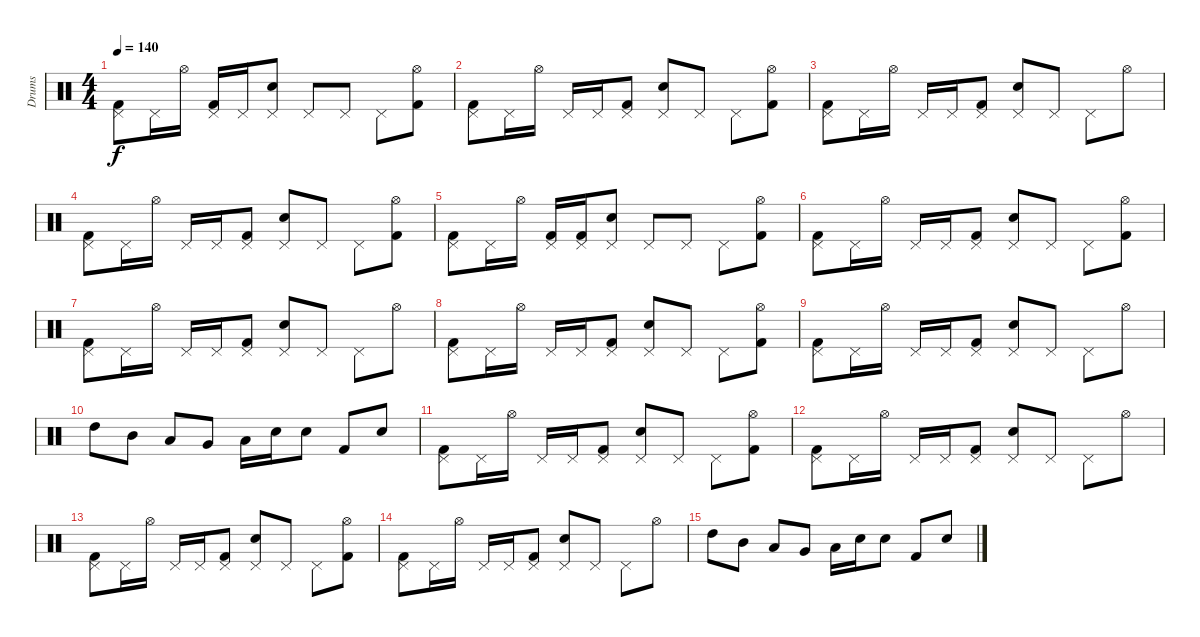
\track ("Drums" "Drums") {instrument percussion}
\staff {score}
\articulation defaults
\ts (4 4)
\tempo 140
\clef neutral
\ks c
("Pedal Hi-Hat (hit)" "Kick (hit) 2").8{dy f} "Pedal Hi-Hat (hit)".16 "Hi-Hat (open)".16 ("Pedal Hi-Hat (hit)" "Kick (hit) 2").16 "Pedal Hi-Hat (hit)".16 ("Pedal Hi-Hat (hit)" "Electric Snare (hit)").8 "Pedal Hi-Hat (hit)".8 "Pedal Hi-Hat (hit)".8 "Pedal Hi-Hat (hit)".8 ("Hi-Hat (open)" "Kick (hit) 2").8 |
("Pedal Hi-Hat (hit)" "Kick (hit) 2").8 "Pedal Hi-Hat (hit)".16 "Hi-Hat (open)".16 "Pedal Hi-Hat (hit)".16 "Pedal Hi-Hat (hit)".16 ("Pedal Hi-Hat (hit)" "Kick (hit) 2").8 ("Pedal Hi-Hat (hit)" "Electric Snare (hit)").8 "Pedal Hi-Hat (hit)".8 "Pedal Hi-Hat (hit)".8 ("Hi-Hat (open)" "Kick (hit) 2").8 |
("Pedal Hi-Hat (hit)" "Kick (hit) 2").8 "Pedal Hi-Hat (hit)".16 "Hi-Hat (open)".16 "Pedal Hi-Hat (hit)".16 "Pedal Hi-Hat (hit)".16 ("Pedal Hi-Hat (hit)" "Kick (hit) 2").8 ("Pedal Hi-Hat (hit)" "Electric Snare (hit)").8 "Pedal Hi-Hat (hit)".8 "Pedal Hi-Hat (hit)".8 "Hi-Hat (open)".8 |
("Pedal Hi-Hat (hit)" "Kick (hit) 2").8 "Pedal Hi-Hat (hit)".16 "Hi-Hat (open)".16 "Pedal Hi-Hat (hit)".16 "Pedal Hi-Hat (hit)".16 ("Pedal Hi-Hat (hit)" "Kick (hit) 2").8 ("Pedal Hi-Hat (hit)" "Electric Snare (hit)").8 "Pedal Hi-Hat (hit)".8 "Pedal Hi-Hat (hit)".8 ("Hi-Hat (open)" "Kick (hit) 2").8 |
("Pedal Hi-Hat (hit)" "Kick (hit) 2").8 "Pedal Hi-Hat (hit)".16 "Hi-Hat (open)".16 ("Pedal Hi-Hat (hit)" "Kick (hit) 2").16 ("Pedal Hi-Hat (hit)" "Kick (hit) 2").16 ("Pedal Hi-Hat (hit)" "Electric Snare (hit)").8 "Pedal Hi-Hat (hit)".8 "Pedal Hi-Hat (hit)".8 "Pedal Hi-Hat (hit)".8 ("Hi-Hat (open)" "Kick (hit) 2").8 |
("Pedal Hi-Hat (hit)" "Kick (hit) 2").8 "Pedal Hi-Hat (hit)".16 "Hi-Hat (open)".16 "Pedal Hi-Hat (hit)".16 "Pedal Hi-Hat (hit)".16 ("Pedal Hi-Hat (hit)" "Kick (hit) 2").8 ("Pedal Hi-Hat (hit)" "Electric Snare (hit)").8 "Pedal Hi-Hat (hit)".8 "Pedal Hi-Hat (hit)".8 ("Hi-Hat (open)" "Kick (hit) 2").8 |
("Pedal Hi-Hat (hit)" "Kick (hit) 2").8 "Pedal Hi-Hat (hit)".16 "Hi-Hat (open)".16 "Pedal Hi-Hat (hit)".16 "Pedal Hi-Hat (hit)".16 ("Pedal Hi-Hat (hit)" "Kick (hit) 2").8 ("Pedal Hi-Hat (hit)" "Electric Snare (hit)").8 "Pedal Hi-Hat (hit)".8 "Pedal Hi-Hat (hit)".8 "Hi-Hat (open)".8 |
("Pedal Hi-Hat (hit)" "Kick (hit) 2").8 "Pedal Hi-Hat (hit)".16 "Hi-Hat (open)".16 "Pedal Hi-Hat (hit)".16 "Pedal Hi-Hat (hit)".16 ("Pedal Hi-Hat (hit)" "Kick (hit) 2").8 ("Pedal Hi-Hat (hit)" "Electric Snare (hit)").8 "Pedal Hi-Hat (hit)".8 "Pedal Hi-Hat (hit)".8 ("Hi-Hat (open)" "Kick (hit) 2").8 |
("Pedal Hi-Hat (hit)" "Kick (hit) 2").8 "Pedal Hi-Hat (hit)".16 "Hi-Hat (open)".16 "Pedal Hi-Hat (hit)".16 "Pedal Hi-Hat (hit)".16 ("Pedal Hi-Hat (hit)" "Kick (hit) 2").8 ("Pedal Hi-Hat (hit)" "Electric Snare (hit)").8 "Pedal Hi-Hat (hit)".8 "Pedal Hi-Hat (hit)".8 "Hi-Hat (open)".8 |
"High Tom (hit)".8 "Mid Tom (hit)".8 "Low Tom (hit)".8 "Very Low Tom (hit)".8 "Low Floor Tom (hit)".16 "Electric Snare (hit)".16 "Electric Snare (hit)".8 "Kick (hit) 2".8 "Electric Snare (hit)".8 |
("Pedal Hi-Hat (hit)" "Kick (hit) 2").8 "Pedal Hi-Hat (hit)".16 "Hi-Hat (open)".16 "Pedal Hi-Hat (hit)".16 "Pedal Hi-Hat (hit)".16 ("Pedal Hi-Hat (hit)" "Kick (hit) 2").8 ("Pedal Hi-Hat (hit)" "Electric Snare (hit)").8 "Pedal Hi-Hat (hit)".8 "Pedal Hi-Hat (hit)".8 ("Hi-Hat (open)" "Kick (hit) 2").8 |
("Pedal Hi-Hat (hit)" "Kick (hit) 2").8 "Pedal Hi-Hat (hit)".16 "Hi-Hat (open)".16 "Pedal Hi-Hat (hit)".16 "Pedal Hi-Hat (hit)".16 ("Pedal Hi-Hat (hit)" "Kick (hit) 2").8 ("Pedal Hi-Hat (hit)" "Electric Snare (hit)").8 "Pedal Hi-Hat (hit)".8 "Pedal Hi-Hat (hit)".8 "Hi-Hat (open)".8 |
("Pedal Hi-Hat (hit)" "Kick (hit) 2").8 "Pedal Hi-Hat (hit)".16 "Hi-Hat (open)".16 "Pedal Hi-Hat (hit)".16 "Pedal Hi-Hat (hit)".16 ("Pedal Hi-Hat (hit)" "Kick (hit) 2").8 ("Pedal Hi-Hat (hit)" "Electric Snare (hit)").8 "Pedal Hi-Hat (hit)".8 "Pedal Hi-Hat (hit)".8 ("Hi-Hat (open)" "Kick (hit) 2").8 |
("Pedal Hi-Hat (hit)" "Kick (hit) 2").8 "Pedal Hi-Hat (hit)".16 "Hi-Hat (open)".16 "Pedal Hi-Hat (hit)".16 "Pedal Hi-Hat (hit)".16 ("Pedal Hi-Hat (hit)" "Kick (hit) 2").8 ("Pedal Hi-Hat (hit)" "Electric Snare (hit)").8 "Pedal Hi-Hat (hit)".8 "Pedal Hi-Hat (hit)".8 "Hi-Hat (open)".8 |
"High Tom (hit)".8 "Mid Tom (hit)".8 "Low Tom (hit)".8 "Very Low Tom (hit)".8 "Low Floor Tom (hit)".16 "Electric Snare (hit)".16 "Electric Snare (hit)".8 "Kick (hit) 2".8 "Electric Snare (hit)".8
